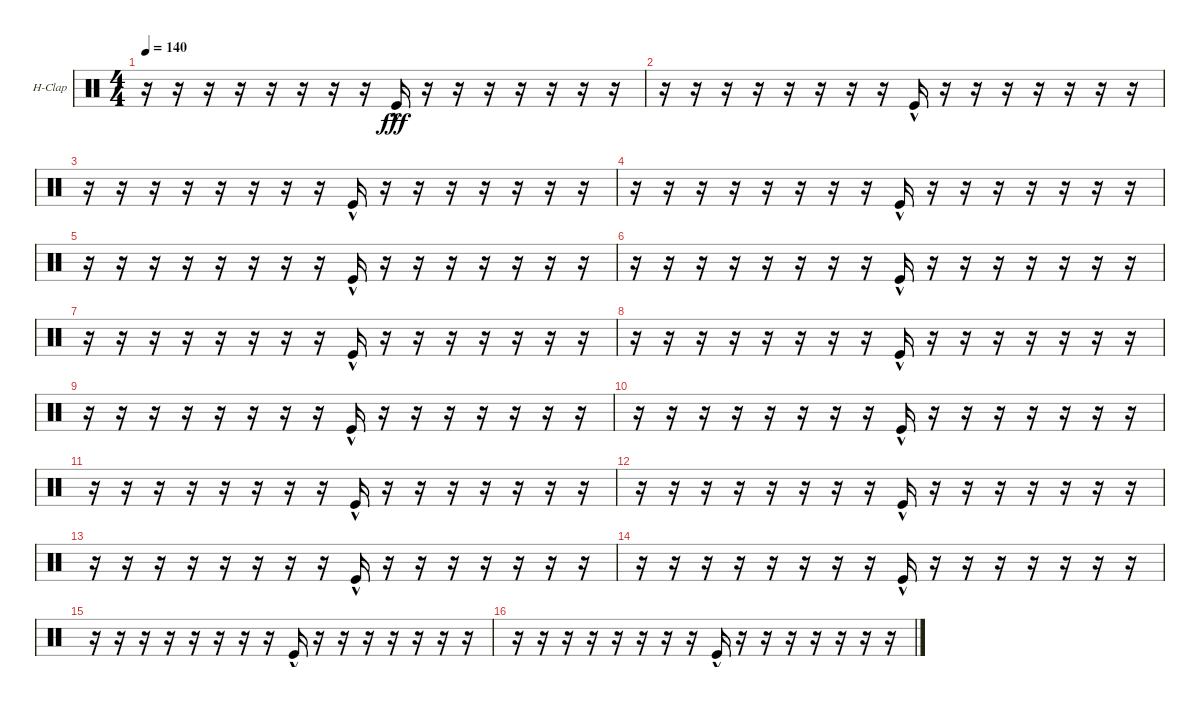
\bracketExtendMode groupsimilarinstruments
\firstSystemTrackNameOrientation horizontal
\otherSystemsTrackNameOrientation horizontal
\track ("Hand Clap" "H-Clap") {instrument percussion}
\staff {score}
\articulation defaults
\ts (4 4)
\tempo 140
\clef neutral
\ks c
r.16{dy fff} r.16 r.16 r.16 r.16 r.16 r.16 r.16 "Kick (hit)"{hac}.16 r.16 r.16 r.16 r.16 r.16 r.16 r.16 |
r.16 r.16 r.16 r.16 r.16 r.16 r.16 r.16 "Kick (hit)"{hac}.16 r.16 r.16 r.16 r.16 r.16 r.16 r.16 |
r.16 r.16 r.16 r.16 r.16 r.16 r.16 r.16 "Kick (hit)"{hac}.16 r.16 r.16 r.16 r.16 r.16 r.16 r.16 |
r.16 r.16 r.16 r.16 r.16 r.16 r.16 r.16 "Kick (hit)"{hac}.16 r.16 r.16 r.16 r.16 r.16 r.16 r.16 |
r.16 r.16 r.16 r.16 r.16 r.16 r.16 r.16 "Kick (hit)"{hac}.16 r.16 r.16 r.16 r.16 r.16 r.16 r.16 |
r.16 r.16 r.16 r.16 r.16 r.16 r.16 r.16 "Kick (hit)"{hac}.16 r.16 r.16 r.16 r.16 r.16 r.16 r.16 |
r.16 r.16 r.16 r.16 r.16 r.16 r.16 r.16 "Kick (hit)"{hac}.16 r.16 r.16 r.16 r.16 r.16 r.16 r.16 |
r.16 r.16 r.16 r.16 r.16 r.16 r.16 r.16 "Kick (hit)"{hac}.16 r.16 r.16 r.16 r.16 r.16 r.16 r.16 |
r.16 r.16 r.16 r.16 r.16 r.16 r.16 r.16 "Kick (hit)"{hac}.16 r.16 r.16 r.16 r.16 r.16 r.16 r.16 |
r.16 r.16 r.16 r.16 r.16 r.16 r.16 r.16 "Kick (hit)"{hac}.16 r.16 r.16 r.16 r.16 r.16 r.16 r.16 |
r.16 r.16 r.16 r.16 r.16 r.16 r.16 r.16 "Kick (hit)"{hac}.16 r.16 r.16 r.16 r.16 r.16 r.16 r.16 |
r.16 r.16 r.16 r.16 r.16 r.16 r.16 r.16 "Kick (hit)"{hac}.16 r.16 r.16 r.16 r.16 r.16 r.16 r.16 |
r.16 r.16 r.16 r.16 r.16 r.16 r.16 r.16 "Kick (hit)"{hac}.16 r.16 r.16 r.16 r.16 r.16 r.16 r.16 |
r.16 r.16 r.16 r.16 r.16 r.16 r.16 r.16 "Kick (hit)"{hac}.16 r.16 r.16 r.16 r.16 r.16 r.16 r.16 |
r.16 r.16 r.16 r.16 r.16 r.16 r.16 r.16 "Kick (hit)"{hac}.16 r.16 r.16 r.16 r.16 r.16 r.16 r.16 |
r.16 r.16 r.16 r.16 r.16 r.16 r.16 r.16 "Kick (hit)"{hac}.16 r.16 r.16 r.16 r.16 r.16 r.16 r.16
